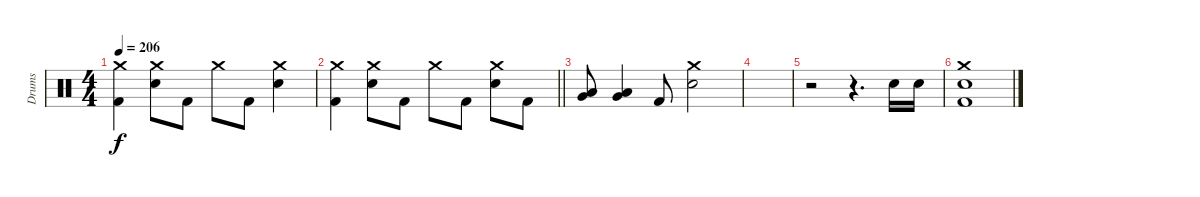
\track ("Drums" "Drums") {instrument percussion}
\staff {score}
\articulation defaults
\ts (4 4)
\tempo 206
\clef neutral
\ks c
("Crash medium (hit)" "Kick (hit) 2").4{dy f} ("Crash medium (hit)" "Electric Snare (hit)").8 "Kick (hit) 2".8 "Crash medium (hit)".8 "Kick (hit) 2".8 ("Crash medium (hit)" "Electric Snare (hit)").4 |
\barLineRight lightlight
("Crash medium (hit)" "Kick (hit) 2").4 ("Crash medium (hit)" "Electric Snare (hit)").8 "Kick (hit) 2".8 "Crash medium (hit)".8 "Kick (hit) 2".8 ("Crash medium (hit)" "Electric Snare (hit)").8 "Kick (hit) 2".8 |
("Low Floor Tom (hit)" "Very Low Tom (hit)").8 ("Low Floor Tom (hit)" "Very Low Tom (hit)").4 "Kick (hit) 2".8 ("Crash medium (hit)" "Electric Snare (hit)").2 |
|
r.2 r.4{d} "Electric Snare (hit)".16 "Electric Snare (hit)".16 |
("Crash medium (hit)" "Electric Snare (hit)" "Kick (hit) 2").1
